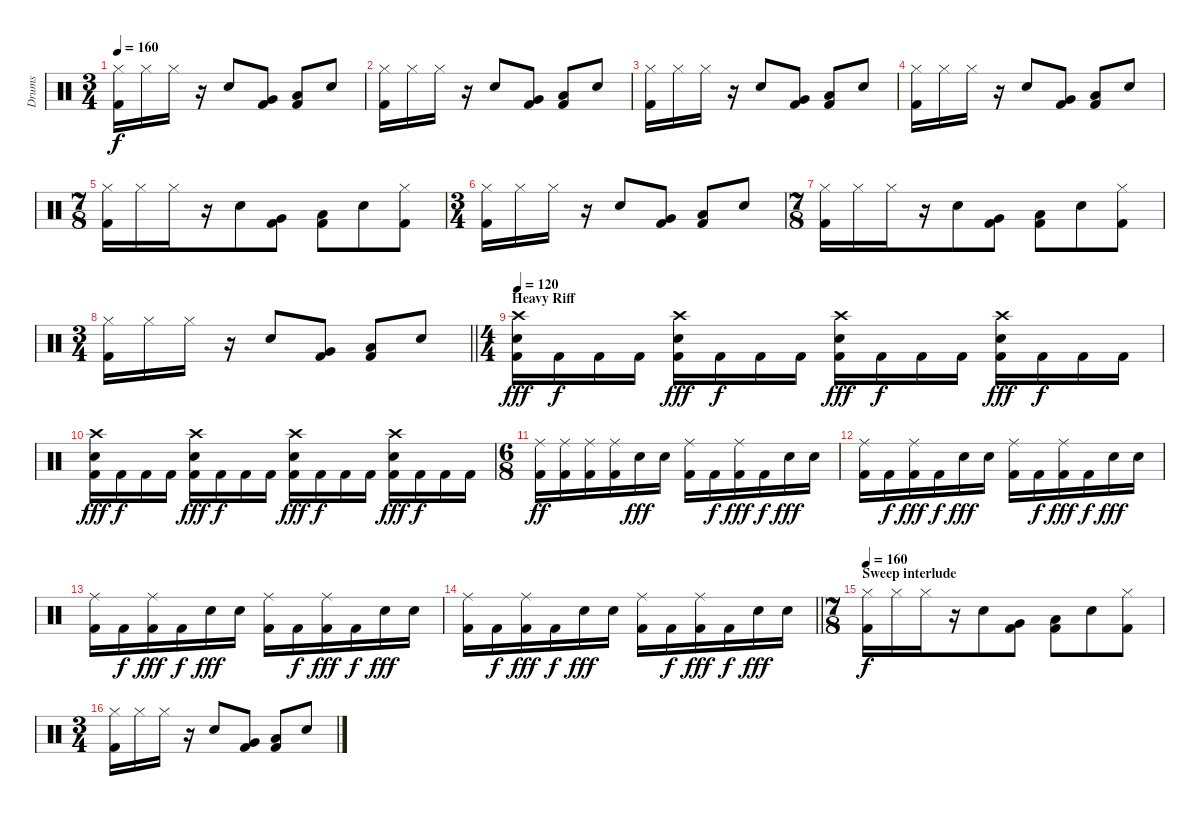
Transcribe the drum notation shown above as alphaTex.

\track ("Drums" "Drums") {instrument percussion}
\staff {score}
\articulation defaults
\ts (3 4)
\tempo 160
\clef neutral
\ks c
("Hi-Hat (closed)" "Kick (hit) 2").16{dy f} "Hi-Hat (closed)".16 "Hi-Hat (closed)".16 r.16 "Electric Snare (hit)".8 ("Very Low Tom (hit)" "Kick (hit) 2").8 ("Low Floor Tom (hit)" "Kick (hit) 2").8 "Electric Snare (hit)".8 |
("Hi-Hat (closed)" "Kick (hit) 2").16 "Hi-Hat (closed)".16 "Hi-Hat (closed)".16 r.16 "Electric Snare (hit)".8 ("Very Low Tom (hit)" "Kick (hit) 2").8 ("Low Floor Tom (hit)" "Kick (hit) 2").8 "Electric Snare (hit)".8 |
("Hi-Hat (closed)" "Kick (hit) 2").16 "Hi-Hat (closed)".16 "Hi-Hat (closed)".16 r.16 "Electric Snare (hit)".8 ("Very Low Tom (hit)" "Kick (hit) 2").8 ("Low Floor Tom (hit)" "Kick (hit) 2").8 "Electric Snare (hit)".8 |
("Hi-Hat (closed)" "Kick (hit) 2").16 "Hi-Hat (closed)".16 "Hi-Hat (closed)".16 r.16 "Electric Snare (hit)".8 ("Very Low Tom (hit)" "Kick (hit) 2").8 ("Low Floor Tom (hit)" "Kick (hit) 2").8 "Electric Snare (hit)".8 |
\ts (7 8)
("Hi-Hat (closed)" "Kick (hit) 2").16 "Hi-Hat (closed)".16 "Hi-Hat (closed)".16 r.16 "Electric Snare (hit)".8 ("Very Low Tom (hit)" "Kick (hit) 2").8 ("Low Floor Tom (hit)" "Kick (hit) 2").8 "Electric Snare (hit)".8 ("Hi-Hat (closed)" "Kick (hit) 2").8 |
\ts (3 4)
("Hi-Hat (closed)" "Kick (hit) 2").16 "Hi-Hat (closed)".16 "Hi-Hat (closed)".16 r.16 "Electric Snare (hit)".8 ("Very Low Tom (hit)" "Kick (hit) 2").8 ("Low Floor Tom (hit)" "Kick (hit) 2").8 "Electric Snare (hit)".8 |
\ts (7 8)
("Hi-Hat (closed)" "Kick (hit) 2").16 "Hi-Hat (closed)".16 "Hi-Hat (closed)".16 r.16 "Electric Snare (hit)".8 ("Very Low Tom (hit)" "Kick (hit) 2").8 ("Low Floor Tom (hit)" "Kick (hit) 2").8 "Electric Snare (hit)".8 ("Hi-Hat (closed)" "Kick (hit) 2").8 |
\ts (3 4)
\barLineRight lightlight
("Hi-Hat (closed)" "Kick (hit) 2").16 "Hi-Hat (closed)".16 "Hi-Hat (closed)".16 r.16 "Electric Snare (hit)".8 ("Very Low Tom (hit)" "Kick (hit) 2").8 ("Low Floor Tom (hit)" "Kick (hit) 2").8 "Electric Snare (hit)".8 |
\ts (4 4)
\section ("" "Heavy Riff")
\tempo 120
("Crash high (hit)" "Electric Snare (hit)" "Kick (hit) 2").16{dy fff} "Kick (hit) 2".16{dy f} "Kick (hit) 2".16 "Kick (hit) 2".16 ("Crash high (hit)" "Electric Snare (hit)" "Kick (hit) 2").16{dy fff} "Kick (hit) 2".16{dy f} "Kick (hit) 2".16 "Kick (hit) 2".16 ("Crash high (hit)" "Electric Snare (hit)" "Kick (hit) 2").16{dy fff} "Kick (hit) 2".16{dy f} "Kick (hit) 2".16 "Kick (hit) 2".16 ("Crash high (hit)" "Electric Snare (hit)" "Kick (hit) 2").16{dy fff} "Kick (hit) 2".16{dy f} "Kick (hit) 2".16 "Kick (hit) 2".16 |
("Crash high (hit)" "Electric Snare (hit)" "Kick (hit) 2").16{dy fff} "Kick (hit) 2".16{dy f} "Kick (hit) 2".16 "Kick (hit) 2".16 ("Crash high (hit)" "Electric Snare (hit)" "Kick (hit) 2").16{dy fff} "Kick (hit) 2".16{dy f} "Kick (hit) 2".16 "Kick (hit) 2".16 ("Crash high (hit)" "Electric Snare (hit)" "Kick (hit) 2").16{dy fff} "Kick (hit) 2".16{dy f} "Kick (hit) 2".16 "Kick (hit) 2".16 ("Crash high (hit)" "Electric Snare (hit)" "Kick (hit) 2").16{dy fff} "Kick (hit) 2".16{dy f} "Kick (hit) 2".16 "Kick (hit) 2".16 |
\ts (6 8)
("Ride (middle)" "Kick (hit) 2").16{dy ff} ("Ride (middle)" "Kick (hit) 2").16 ("Ride (middle)" "Kick (hit) 2").16 ("Ride (middle)" "Kick (hit) 2").16 "Electric Snare (hit)".16{dy fff} "Electric Snare (hit)".16 ("Ride (middle)" "Kick (hit) 2").16 "Kick (hit) 2".16{dy f} ("Ride (middle)" "Kick (hit) 2").16{dy fff} "Kick (hit) 2".16{dy f} "Electric Snare (hit)".16{dy fff} "Electric Snare (hit)".16 |
("Ride (middle)" "Kick (hit) 2").16 "Kick (hit) 2".16{dy f} ("Ride (middle)" "Kick (hit) 2").16{dy fff} "Kick (hit) 2".16{dy f} "Electric Snare (hit)".16{dy fff} "Electric Snare (hit)".16 ("Ride (middle)" "Kick (hit) 2").16 "Kick (hit) 2".16{dy f} ("Ride (middle)" "Kick (hit) 2").16{dy fff} "Kick (hit) 2".16{dy f} "Electric Snare (hit)".16{dy fff} "Electric Snare (hit)".16 |
("Ride (middle)" "Kick (hit) 2").16 "Kick (hit) 2".16{dy f} ("Ride (middle)" "Kick (hit) 2").16{dy fff} "Kick (hit) 2".16{dy f} "Electric Snare (hit)".16{dy fff} "Electric Snare (hit)".16 ("Ride (middle)" "Kick (hit) 2").16 "Kick (hit) 2".16{dy f} ("Ride (middle)" "Kick (hit) 2").16{dy fff} "Kick (hit) 2".16{dy f} "Electric Snare (hit)".16{dy fff} "Electric Snare (hit)".16 |
\barLineRight lightlight
("Ride (middle)" "Kick (hit) 2").16 "Kick (hit) 2".16{dy f} ("Ride (middle)" "Kick (hit) 2").16{dy fff} "Kick (hit) 2".16{dy f} "Electric Snare (hit)".16{dy fff} "Electric Snare (hit)".16 ("Ride (middle)" "Kick (hit) 2").16 "Kick (hit) 2".16{dy f} ("Ride (middle)" "Kick (hit) 2").16{dy fff} "Kick (hit) 2".16{dy f} "Electric Snare (hit)".16{dy fff} "Electric Snare (hit)".16 |
\ts (7 8)
\section ("" "Sweep interlude")
\tempo 160
("Hi-Hat (closed)" "Kick (hit) 2").16{dy f} "Hi-Hat (closed)".16 "Hi-Hat (closed)".16 r.16 "Electric Snare (hit)".8 ("Very Low Tom (hit)" "Kick (hit) 2").8 ("Low Floor Tom (hit)" "Kick (hit) 2").8 "Electric Snare (hit)".8 ("Hi-Hat (closed)" "Kick (hit) 2").8 |
\ts (3 4)
("Hi-Hat (closed)" "Kick (hit) 2").16 "Hi-Hat (closed)".16 "Hi-Hat (closed)".16 r.16 "Electric Snare (hit)".8 ("Very Low Tom (hit)" "Kick (hit) 2").8 ("Low Floor Tom (hit)" "Kick (hit) 2").8 "Electric Snare (hit)".8
